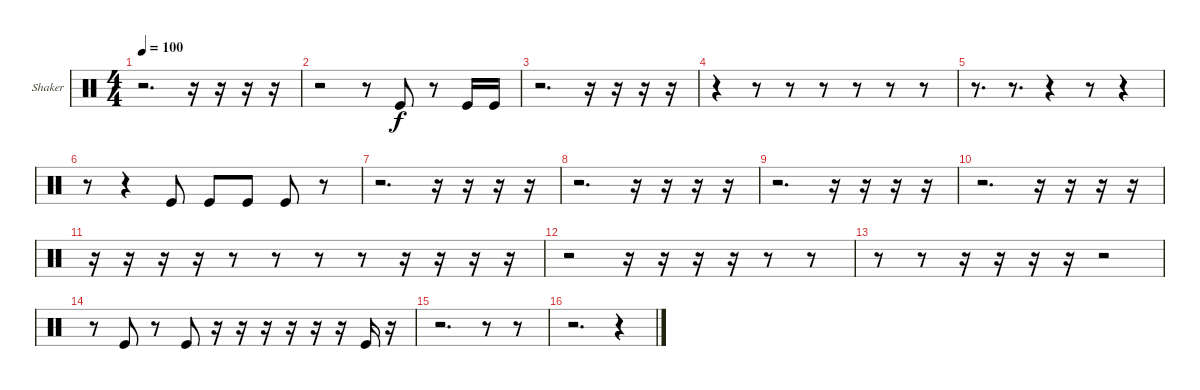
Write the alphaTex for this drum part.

\bracketExtendMode groupsimilarinstruments
\firstSystemTrackNameOrientation horizontal
\otherSystemsTrackNameOrientation horizontal
\track ("Shaker" "Shaker") {instrument percussion}
\staff {score}
\articulation defaults
\ts (4 4)
\tempo 100
\clef neutral
\ks c
r.2{d dy f} r.16 r.16 r.16 r.16 |
r.2 r.8 "Kick (hit)".8 r.8 "Kick (hit)".16 "Kick (hit)".16 |
r.2{d} r.16 r.16 r.16 r.16 |
r.4 r.8 r.8 r.8 r.8 r.8 r.8 |
r.8{d} r.8{d} r.4 r.8 r.4 |
r.8 r.4 "Kick (hit)".8 "Kick (hit)".8 "Kick (hit)".8 "Kick (hit)".8 r.8 |
r.2{d} r.16 r.16 r.16 r.16 |
r.2{d} r.16 r.16 r.16 r.16 |
r.2{d} r.16 r.16 r.16 r.16 |
r.2{d} r.16 r.16 r.16 r.16 |
r.16 r.16 r.16 r.16 r.8 r.8 r.8 r.8 r.16 r.16 r.16 r.16 |
r.2 r.16 r.16 r.16 r.16 r.8 r.8 |
r.8 r.8 r.16 r.16 r.16 r.16 r.2 |
r.8 "Kick (hit)".8 r.8 "Kick (hit)".8 r.16 r.16 r.16 r.16 r.16 r.16 "Kick (hit)".16 r.16 |
r.2{d} r.8 r.8 |
r.2{d} r.4
